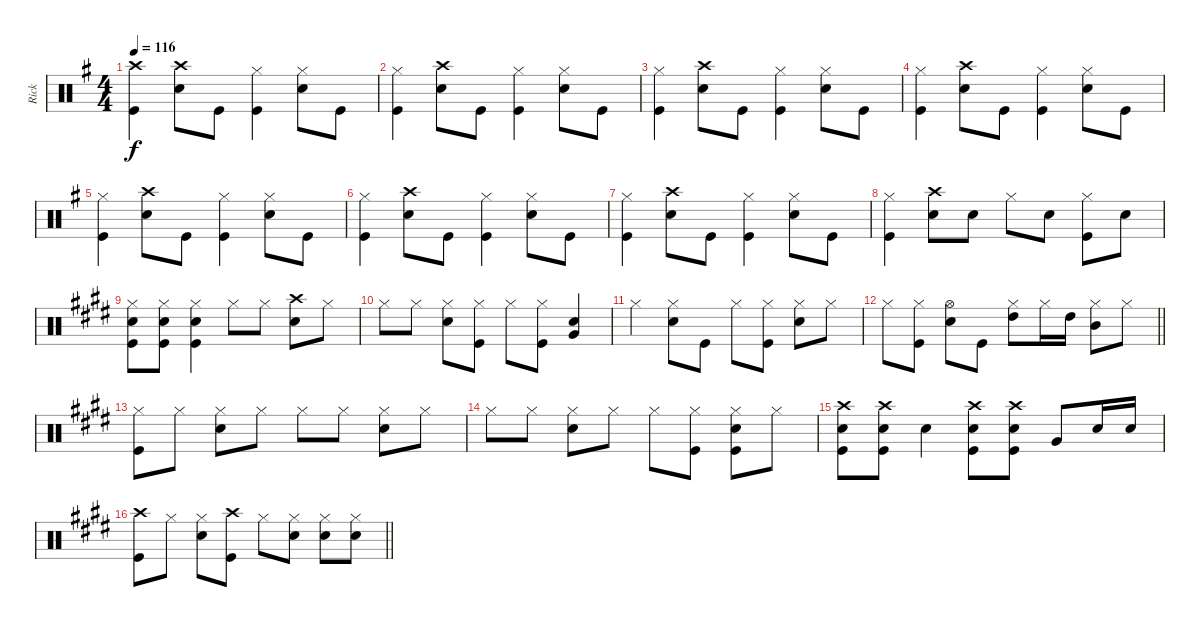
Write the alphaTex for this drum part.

\track ("Rick" "Rick") {instrument percussion}
\staff {score}
\articulation defaults
\ts (4 4)
\tempo 116
\clef neutral
\ks g
("Crash high (hit)" "Kick (hit)").4{dy f} ("Crash high (hit)" "Snare (hit) 2").8 "Kick (hit)".8 ("Hi-Hat (closed)" "Kick (hit)").4 ("Hi-Hat (closed)" "Snare (hit) 2").8 "Kick (hit)".8 |
("Hi-Hat (closed)" "Kick (hit)").4 ("Crash high (hit)" "Snare (hit) 2").8 "Kick (hit)".8 ("Hi-Hat (closed)" "Kick (hit)").4 ("Hi-Hat (closed)" "Snare (hit) 2").8 "Kick (hit)".8 |
("Hi-Hat (closed)" "Kick (hit)").4 ("Crash high (hit)" "Snare (hit) 2").8 "Kick (hit)".8 ("Hi-Hat (closed)" "Kick (hit)").4 ("Hi-Hat (closed)" "Snare (hit) 2").8 "Kick (hit)".8 |
("Hi-Hat (closed)" "Kick (hit)").4 ("Crash high (hit)" "Snare (hit) 2").8 "Kick (hit)".8 ("Hi-Hat (closed)" "Kick (hit)").4 ("Hi-Hat (closed)" "Snare (hit) 2").8 "Kick (hit)".8 |
("Hi-Hat (closed)" "Kick (hit)").4 ("Crash high (hit)" "Snare (hit) 2").8 "Kick (hit)".8 ("Hi-Hat (closed)" "Kick (hit)").4 ("Hi-Hat (closed)" "Snare (hit) 2").8 "Kick (hit)".8 |
("Hi-Hat (closed)" "Kick (hit)").4 ("Crash high (hit)" "Snare (hit) 2").8 "Kick (hit)".8 ("Hi-Hat (closed)" "Kick (hit)").4 ("Hi-Hat (closed)" "Snare (hit) 2").8 "Kick (hit)".8 |
("Hi-Hat (closed)" "Kick (hit)").4 ("Crash high (hit)" "Snare (hit) 2").8 "Kick (hit)".8 ("Hi-Hat (closed)" "Kick (hit)").4 ("Hi-Hat (closed)" "Snare (hit) 2").8 "Kick (hit)".8 |
("Hi-Hat (closed)" "Kick (hit)").4 ("Crash high (hit)" "Snare (hit) 2").8 "Snare (hit) 2".8 "Hi-Hat (closed)".8 "Snare (hit) 2".8 ("Hi-Hat (closed)" "Kick (hit)").8 "Snare (hit) 2".8 |
\ks e
("Hi-Hat (closed)" "Snare (hit) 2" "Kick (hit)").8 ("Hi-Hat (closed)" "Snare (hit) 2" "Kick (hit)").8 ("Hi-Hat (closed)" "Snare (hit) 2" "Kick (hit)").4 "Hi-Hat (closed)".8 "Hi-Hat (closed)".8 ("Crash high (hit)" "Snare (hit) 2").8 "Hi-Hat (closed)".8 |
"Hi-Hat (closed)".8 "Hi-Hat (closed)".8 ("Hi-Hat (closed)" "Snare (hit) 2").8 ("Hi-Hat (closed)" "Kick (hit)").8 "Hi-Hat (closed)".8 ("Hi-Hat (closed)" "Kick (hit)").8 ("Snare (hit) 2" "Very Low Tom (hit)").4 |
"Hi-Hat (closed)".4 ("Hi-Hat (closed)" "Snare (hit) 2").8 "Kick (hit)".8 "Hi-Hat (closed)".8 ("Hi-Hat (closed)" "Kick (hit)").8 ("Hi-Hat (closed)" "Snare (hit) 2").8 "Hi-Hat (closed)".8 |
\barLineRight lightlight "Hi-Hat (closed)".8
("Hi-Hat (closed)" "Kick (hit)").8 ("Hi-Hat (open)" "Snare (hit) 2").8 "Kick (hit)".8 ("Hi-Hat (closed)" "High Tom (hit)").8 "Hi-Hat (closed)".16 "High Tom (hit)".16 ("Hi-Hat (closed)" "Mid Tom (hit)").8 "Hi-Hat (closed)".8 |
("Hi-Hat (closed)" "Kick (hit)").8 "Hi-Hat (closed)".8 ("Hi-Hat (closed)" "Snare (hit) 2").8 "Hi-Hat (closed)".8 "Hi-Hat (closed)".8 "Hi-Hat (closed)".8 ("Hi-Hat (closed)" "Snare (hit) 2").8 "Hi-Hat (closed)".8 |
"Hi-Hat (closed)".8 "Hi-Hat (closed)".8 ("Hi-Hat (closed)" "Snare (hit) 2").8 "Hi-Hat (closed)".8 "Hi-Hat (closed)".8 ("Hi-Hat (closed)" "Kick (hit)").8 ("Hi-Hat (closed)" "Snare (hit) 2" "Kick (hit)").8 "Hi-Hat (closed)".8 |
("Crash high (hit)" "Snare (hit) 2" "Kick (hit)").8 ("Crash high (hit)" "Snare (hit) 2" "Kick (hit)").8 "Snare (hit) 2".4 ("Crash high (hit)" "Snare (hit) 2" "Kick (hit)").8 ("Crash high (hit)" "Snare (hit) 2" "Kick (hit)").8 "Very Low Tom (hit)".8 "Snare (hit) 2".16 "Snare (hit) 2".16 |
\barLineRight lightlight
("Crash high (hit)" "Kick (hit)").8 "Hi-Hat (closed)".8 ("Hi-Hat (closed)" "Snare (hit) 2").8 ("Crash high (hit)" "Kick (hit)").8 "Hi-Hat (closed)".8 ("Hi-Hat (closed)" "Snare (hit) 2").8 ("Hi-Hat (closed)" "Snare (hit) 2").8 ("Hi-Hat (closed)" "Snare (hit) 2").8
